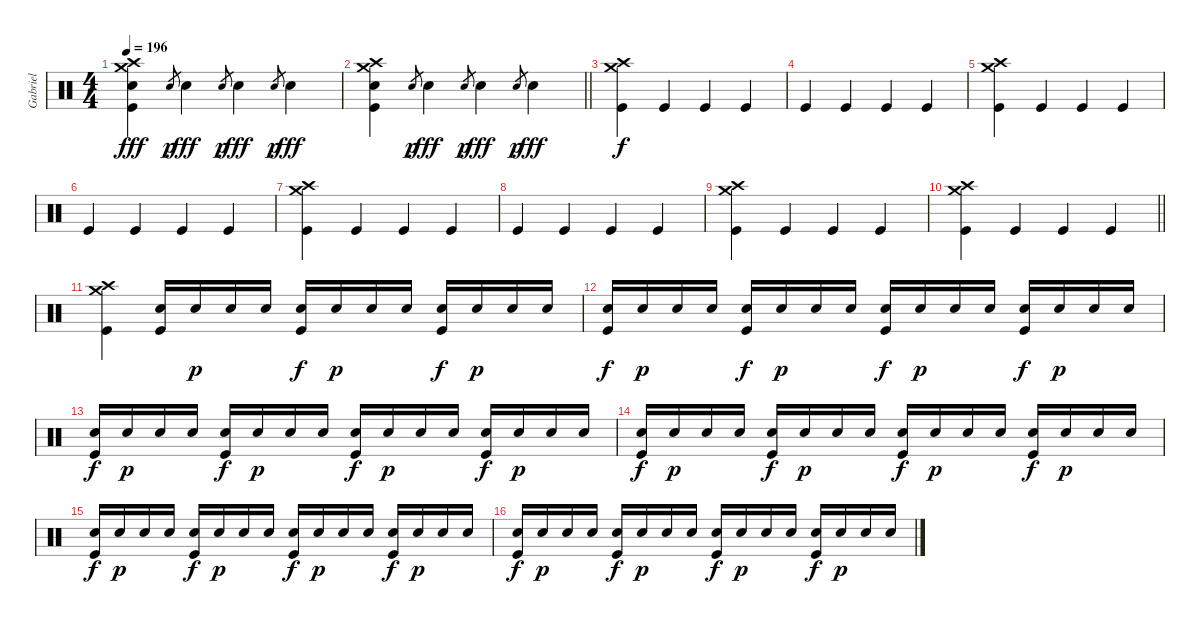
\track ("Gabriel" "Gabriel") {instrument percussion}
\staff {score}
\articulation defaults
\ts (4 4)
\tempo 196
\clef neutral
\ks aminor
("Crash medium (hit)" "Crash high (hit)" "Kick (hit)" "Hand Clap (hit)").4{dy fff} "Hand Clap (hit)".8{gr dy p} "Hand Clap (hit)".4{dy fff} "Hand Clap (hit)".8{gr dy p} "Hand Clap (hit)".4{dy fff} "Hand Clap (hit)".8{gr dy p} "Hand Clap (hit)".4{dy fff} |
\barLineRight lightlight
("Crash medium (hit)" "Crash high (hit)" "Kick (hit)" "Hand Clap (hit)").4 "Hand Clap (hit)".8{gr dy p} "Hand Clap (hit)".4{dy fff} "Hand Clap (hit)".8{gr dy p} "Hand Clap (hit)".4{dy fff} "Hand Clap (hit)".8{gr dy p} "Hand Clap (hit)".4{dy fff} |
("Crash high (hit)" "Crash medium (hit)" "Kick (hit)").4{dy f} "Kick (hit)".4 "Kick (hit)".4 "Kick (hit)".4 |
"Kick (hit)".4 "Kick (hit)".4 "Kick (hit)".4 "Kick (hit)".4 |
("Crash high (hit)" "Crash medium (hit)" "Kick (hit)").4 "Kick (hit)".4 "Kick (hit)".4 "Kick (hit)".4 |
"Kick (hit)".4 "Kick (hit)".4 "Kick (hit)".4 "Kick (hit)".4 |
("Crash high (hit)" "Crash medium (hit)" "Kick (hit)").4 "Kick (hit)".4 "Kick (hit)".4 "Kick (hit)".4 |
"Kick (hit)".4 "Kick (hit)".4 "Kick (hit)".4 "Kick (hit)".4 |
("Crash high (hit)" "Crash medium (hit)" "Kick (hit)").4 "Kick (hit)".4 "Kick (hit)".4 "Kick (hit)".4 |
\barLineRight lightlight
("Crash high (hit)" "Crash medium (hit)" "Kick (hit)").4 "Kick (hit)".4 "Kick (hit)".4 "Kick (hit)".4 |
("Crash high (hit)" "Crash medium (hit)" "Kick (hit)").4 ("Snare (hit) 2" "Kick (hit)").16 "Snare (hit) 2".16{dy p} "Snare (hit) 2".16 "Snare (hit) 2".16 ("Snare (hit) 2" "Kick (hit)").16{dy f} "Snare (hit) 2".16{dy p} "Snare (hit) 2".16 "Snare (hit) 2".16 ("Snare (hit) 2" "Kick (hit)").16{dy f} "Snare (hit) 2".16{dy p} "Snare (hit) 2".16 "Snare (hit) 2".16 |
("Snare (hit) 2" "Kick (hit)").16{dy f} "Snare (hit) 2".16{dy p} "Snare (hit) 2".16 "Snare (hit) 2".16 ("Snare (hit) 2" "Kick (hit)").16{dy f} "Snare (hit) 2".16{dy p} "Snare (hit) 2".16 "Snare (hit) 2".16 ("Snare (hit) 2" "Kick (hit)").16{dy f} "Snare (hit) 2".16{dy p} "Snare (hit) 2".16 "Snare (hit) 2".16 ("Snare (hit) 2" "Kick (hit)").16{dy f} "Snare (hit) 2".16{dy p} "Snare (hit) 2".16 "Snare (hit) 2".16 |
("Snare (hit) 2" "Kick (hit)").16{dy f} "Snare (hit) 2".16{dy p} "Snare (hit) 2".16 "Snare (hit) 2".16 ("Snare (hit) 2" "Kick (hit)").16{dy f} "Snare (hit) 2".16{dy p} "Snare (hit) 2".16 "Snare (hit) 2".16 ("Snare (hit) 2" "Kick (hit)").16{dy f} "Snare (hit) 2".16{dy p} "Snare (hit) 2".16 "Snare (hit) 2".16 ("Snare (hit) 2" "Kick (hit)").16{dy f} "Snare (hit) 2".16{dy p} "Snare (hit) 2".16 "Snare (hit) 2".16 |
("Snare (hit) 2" "Kick (hit)").16{dy f} "Snare (hit) 2".16{dy p} "Snare (hit) 2".16 "Snare (hit) 2".16 ("Snare (hit) 2" "Kick (hit)").16{dy f} "Snare (hit) 2".16{dy p} "Snare (hit) 2".16 "Snare (hit) 2".16 ("Snare (hit) 2" "Kick (hit)").16{dy f} "Snare (hit) 2".16{dy p} "Snare (hit) 2".16 "Snare (hit) 2".16 ("Snare (hit) 2" "Kick (hit)").16{dy f} "Snare (hit) 2".16{dy p} "Snare (hit) 2".16 "Snare (hit) 2".16 |
("Snare (hit) 2" "Kick (hit)").16{dy f} "Snare (hit) 2".16{dy p} "Snare (hit) 2".16 "Snare (hit) 2".16 ("Snare (hit) 2" "Kick (hit)").16{dy f} "Snare (hit) 2".16{dy p} "Snare (hit) 2".16 "Snare (hit) 2".16 ("Snare (hit) 2" "Kick (hit)").16{dy f} "Snare (hit) 2".16{dy p} "Snare (hit) 2".16 "Snare (hit) 2".16 ("Snare (hit) 2" "Kick (hit)").16{dy f} "Snare (hit) 2".16{dy p} "Snare (hit) 2".16 "Snare (hit) 2".16 |
("Snare (hit) 2" "Kick (hit)").16{dy f} "Snare (hit) 2".16{dy p} "Snare (hit) 2".16 "Snare (hit) 2".16 ("Snare (hit) 2" "Kick (hit)").16{dy f} "Snare (hit) 2".16{dy p} "Snare (hit) 2".16 "Snare (hit) 2".16 ("Snare (hit) 2" "Kick (hit)").16{dy f} "Snare (hit) 2".16{dy p} "Snare (hit) 2".16 "Snare (hit) 2".16 ("Snare (hit) 2" "Kick (hit)").16{dy f} "Snare (hit) 2".16{dy p} "Snare (hit) 2".16 "Snare (hit) 2".16
